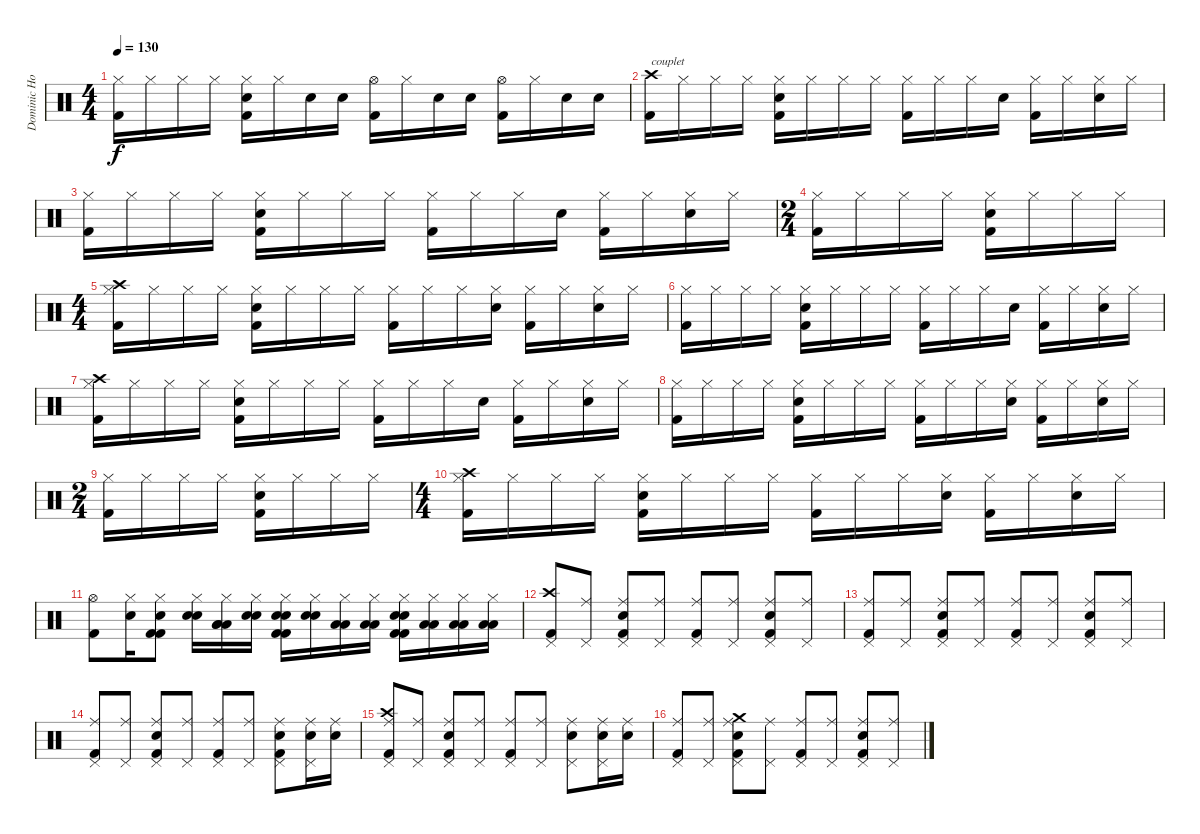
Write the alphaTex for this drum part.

\track ("Dominic Howard" "Dominic Ho") {instrument percussion}
\staff {score}
\articulation defaults
\ts (4 4)
\tempo 130
\clef neutral
\ks c
("Hi-Hat (closed)" "Kick (hit) 2").16{dy f} "Hi-Hat (closed)".16 "Hi-Hat (closed)".16 "Hi-Hat (closed)".16 ("Hi-Hat (closed)" "Electric Snare (hit)" "Kick (hit) 2").16 "Hi-Hat (closed)".16 "Electric Snare (hit)".16 "Electric Snare (hit)".16 ("Hi-Hat (open)" "Kick (hit) 2").16 "Hi-Hat (closed)".16 "Electric Snare (hit)".16 "Electric Snare (hit)".16 ("Hi-Hat (open)" "Kick (hit) 2").16 "Hi-Hat (closed)".16 "Electric Snare (hit)".16 "Electric Snare (hit)".16 |
("Crash high (hit)" "Kick (hit) 2").16{txt "couplet"} "Hi-Hat (closed)".16 "Hi-Hat (closed)".16 "Hi-Hat (closed)".16 ("Hi-Hat (closed)" "Kick (hit) 2" "Electric Snare (hit)").16 "Hi-Hat (closed)".16 "Hi-Hat (closed)".16 "Hi-Hat (closed)".16 ("Hi-Hat (closed)" "Kick (hit) 2").16 "Hi-Hat (closed)".16 "Hi-Hat (closed)".16 "Electric Snare (hit)".16 ("Hi-Hat (closed)" "Kick (hit) 2").16 "Hi-Hat (closed)".16 ("Hi-Hat (closed)" "Electric Snare (hit)").16 "Hi-Hat (closed)".16 |
("Hi-Hat (closed)" "Kick (hit) 2").16 "Hi-Hat (closed)".16 "Hi-Hat (closed)".16 "Hi-Hat (closed)".16 ("Hi-Hat (closed)" "Kick (hit) 2" "Electric Snare (hit)").16 "Hi-Hat (closed)".16 "Hi-Hat (closed)".16 "Hi-Hat (closed)".16 ("Hi-Hat (closed)" "Kick (hit) 2").16 "Hi-Hat (closed)".16 "Hi-Hat (closed)".16 "Electric Snare (hit)".16 ("Hi-Hat (closed)" "Kick (hit) 2").16 "Hi-Hat (closed)".16 ("Hi-Hat (closed)" "Electric Snare (hit)").16 "Hi-Hat (closed)".16 |
\ts (2 4)
("Hi-Hat (closed)" "Kick (hit) 2").16 "Hi-Hat (closed)".16 "Hi-Hat (closed)".16 "Hi-Hat (closed)".16 ("Hi-Hat (closed)" "Kick (hit) 2" "Electric Snare (hit)").16 "Hi-Hat (closed)".16 "Hi-Hat (closed)".16 "Hi-Hat (closed)".16 |
\ts (4 4)
("Crash high (hit)" "Hi-Hat (closed)" "Kick (hit) 2").16 "Hi-Hat (closed)".16 "Hi-Hat (closed)".16 "Hi-Hat (closed)".16 ("Hi-Hat (closed)" "Electric Snare (hit)" "Kick (hit) 2").16 "Hi-Hat (closed)".16 "Hi-Hat (closed)".16 "Hi-Hat (closed)".16 ("Hi-Hat (closed)" "Kick (hit) 2").16 "Hi-Hat (closed)".16 "Hi-Hat (closed)".16 ("Hi-Hat (closed)" "Electric Snare (hit)").16 ("Hi-Hat (closed)" "Kick (hit) 2").16 "Hi-Hat (closed)".16 ("Electric Snare (hit)" "Hi-Hat (closed)").16 "Hi-Hat (closed)".16 |
("Hi-Hat (closed)" "Kick (hit) 2").16 "Hi-Hat (closed)".16 "Hi-Hat (closed)".16 "Hi-Hat (closed)".16 ("Hi-Hat (closed)" "Electric Snare (hit)" "Kick (hit) 2").16 "Hi-Hat (closed)".16 "Hi-Hat (closed)".16 "Hi-Hat (closed)".16 ("Hi-Hat (closed)" "Kick (hit) 2").16 "Hi-Hat (closed)".16 "Hi-Hat (closed)".16 "Electric Snare (hit)".16 ("Hi-Hat (closed)" "Kick (hit) 2").16 "Hi-Hat (closed)".16 ("Hi-Hat (closed)" "Electric Snare (hit)").16 "Hi-Hat (closed)".16 |
("Crash high (hit)" "Hi-Hat (closed)" "Kick (hit) 2").16 "Hi-Hat (closed)".16 "Hi-Hat (closed)".16 "Hi-Hat (closed)".16 ("Hi-Hat (closed)" "Electric Snare (hit)" "Kick (hit) 2").16 "Hi-Hat (closed)".16 "Hi-Hat (closed)".16 "Hi-Hat (closed)".16 ("Hi-Hat (closed)" "Kick (hit) 2").16 "Hi-Hat (closed)".16 "Hi-Hat (closed)".16 "Electric Snare (hit)".16 ("Hi-Hat (closed)" "Kick (hit) 2").16 "Hi-Hat (closed)".16 ("Hi-Hat (closed)" "Electric Snare (hit)").16 "Hi-Hat (closed)".16 |
("Hi-Hat (closed)" "Kick (hit) 2").16 "Hi-Hat (closed)".16 "Hi-Hat (closed)".16 "Hi-Hat (closed)".16 ("Hi-Hat (closed)" "Kick (hit) 2" "Electric Snare (hit)").16 "Hi-Hat (closed)".16 "Hi-Hat (closed)".16 "Hi-Hat (closed)".16 ("Hi-Hat (closed)" "Kick (hit) 2").16 "Hi-Hat (closed)".16 "Hi-Hat (closed)".16 ("Hi-Hat (closed)" "Electric Snare (hit)").16 ("Hi-Hat (closed)" "Kick (hit) 2").16 "Hi-Hat (closed)".16 ("Hi-Hat (closed)" "Electric Snare (hit)").16 "Hi-Hat (closed)".16 |
\ts (2 4)
("Hi-Hat (closed)" "Kick (hit) 2").16 "Hi-Hat (closed)".16 "Hi-Hat (closed)".16 "Hi-Hat (closed)".16 ("Hi-Hat (closed)" "Kick (hit) 2" "Electric Snare (hit)").16 "Hi-Hat (closed)".16 "Hi-Hat (closed)".16 "Hi-Hat (closed)".16 |
\ts (4 4)
("Crash high (hit)" "Hi-Hat (closed)" "Kick (hit) 2").16 "Hi-Hat (closed)".16 "Hi-Hat (closed)".16 "Hi-Hat (closed)".16 ("Hi-Hat (closed)" "Electric Snare (hit)" "Kick (hit) 2").16 "Hi-Hat (closed)".16 "Hi-Hat (closed)".16 "Hi-Hat (closed)".16 ("Hi-Hat (closed)" "Kick (hit) 2").16 "Hi-Hat (closed)".16 "Hi-Hat (closed)".16 ("Hi-Hat (closed)" "Electric Snare (hit)").16 ("Hi-Hat (closed)" "Kick (hit) 2").16 "Hi-Hat (closed)".16 ("Electric Snare (hit)" "Hi-Hat (closed)").16 "Hi-Hat (closed)".16 |
("Hi-Hat (open)" "Kick (hit) 2").8 ("Hi-Hat (closed)" "Electric Snare (hit)").16 ("Kick (hit) 2" "Electric Snare (hit)" "Kick (hit) 2" "Hi-Hat (closed)").8 ("Electric Snare (hit)" "Electric Snare (hit)" "Hi-Hat (closed)").16 ("Hi-Hat (closed)" "Low Tom (hit)" "Low Tom (hit)" "Low Tom (hit)").16 ("Electric Snare (hit)" "Electric Snare (hit)" "Hi-Hat (closed)").16 ("Hi-Hat (closed)" "Kick (hit) 2" "Electric Snare (hit)" "Electric Snare (hit)" "Kick (hit) 2").16 ("Hi-Hat (closed)" "Electric Snare (hit)" "Electric Snare (hit)").16 ("Hi-Hat (closed)" "Low Tom (hit)" "Low Tom (hit)").16 ("Hi-Hat (closed)" "Low Tom (hit)" "Low Tom (hit)").16 ("Hi-Hat (closed)" "Kick (hit) 2" "Electric Snare (hit)" "Electric Snare (hit)" "Kick (hit) 2").16 ("Hi-Hat (closed)" "Low Tom (hit)" "Low Tom (hit)").16 ("Hi-Hat (closed)" "Low Tom (hit)" "Low Tom (hit)").16 ("Hi-Hat (closed)" "Low Floor Tom (hit)" "Low Floor Tom (hit)").16 |
("Kick (hit) 2" "Crash high (hit)" "Pedal Hi-Hat (hit)").8 ("Ride (middle)" "Pedal Hi-Hat (hit)").8 ("Ride (middle)" "Kick (hit) 2" "Electric Snare (hit)" "Pedal Hi-Hat (hit)").8 ("Ride (middle)" "Pedal Hi-Hat (hit)").8 ("Ride (middle)" "Kick (hit) 2" "Pedal Hi-Hat (hit)").8 ("Ride (middle)" "Pedal Hi-Hat (hit)").8 ("Ride (middle)" "Kick (hit) 2" "Electric Snare (hit)" "Pedal Hi-Hat (hit)").8 ("Ride (middle)" "Pedal Hi-Hat (hit)").8 |
("Ride (middle)" "Kick (hit) 2" "Pedal Hi-Hat (hit)").8 ("Ride (middle)" "Pedal Hi-Hat (hit)").8 ("Ride (middle)" "Kick (hit) 2" "Electric Snare (hit)" "Pedal Hi-Hat (hit)").8 ("Ride (middle)" "Pedal Hi-Hat (hit)").8 ("Ride (middle)" "Kick (hit) 2" "Pedal Hi-Hat (hit)").8 ("Ride (middle)" "Pedal Hi-Hat (hit)").8 ("Ride (middle)" "Kick (hit) 2" "Electric Snare (hit)" "Pedal Hi-Hat (hit)").8 ("Ride (middle)" "Pedal Hi-Hat (hit)").8 |
("Ride (middle)" "Kick (hit) 2" "Pedal Hi-Hat (hit)").8 ("Ride (middle)" "Pedal Hi-Hat (hit)").8 ("Ride (middle)" "Kick (hit) 2" "Electric Snare (hit)" "Pedal Hi-Hat (hit)").8 ("Ride (middle)" "Pedal Hi-Hat (hit)").8 ("Ride (middle)" "Kick (hit) 2" "Pedal Hi-Hat (hit)").8 ("Ride (middle)" "Pedal Hi-Hat (hit)").8 ("Ride (middle)" "Kick (hit) 2" "Electric Snare (hit)" "Pedal Hi-Hat (hit)").8 ("Ride (middle)" "Electric Snare (hit)" "Pedal Hi-Hat (hit)").16 ("Ride (middle)" "Electric Snare (hit)").16 |
("Ride (middle)" "Kick (hit) 2" "Crash high (hit)" "Pedal Hi-Hat (hit)").8 ("Ride (middle)" "Pedal Hi-Hat (hit)").8 ("Ride (middle)" "Kick (hit) 2" "Electric Snare (hit)" "Pedal Hi-Hat (hit)").8 ("Ride (middle)" "Pedal Hi-Hat (hit)").8 ("Ride (middle)" "Kick (hit) 2" "Pedal Hi-Hat (hit)").8 ("Ride (middle)" "Pedal Hi-Hat (hit)").8 ("Ride (middle)" "Electric Snare (hit)" "Pedal Hi-Hat (hit)").8 ("Ride (middle)" "Electric Snare (hit)" "Pedal Hi-Hat (hit)").16 ("Ride (middle)" "Electric Snare (hit)").16 |
("Ride (middle)" "Kick (hit) 2" "Pedal Hi-Hat (hit)").8 ("Ride (middle)" "Pedal Hi-Hat (hit)").8 ("Crash medium (hit)" "Ride (middle)" "Kick (hit) 2" "Electric Snare (hit)" "Pedal Hi-Hat (hit)").8 ("Ride (middle)" "Pedal Hi-Hat (hit)").8 ("Ride (middle)" "Kick (hit) 2" "Pedal Hi-Hat (hit)").8 ("Ride (middle)" "Pedal Hi-Hat (hit)").8 ("Ride (middle)" "Kick (hit) 2" "Electric Snare (hit)" "Pedal Hi-Hat (hit)").8 ("Ride (middle)" "Pedal Hi-Hat (hit)").8
